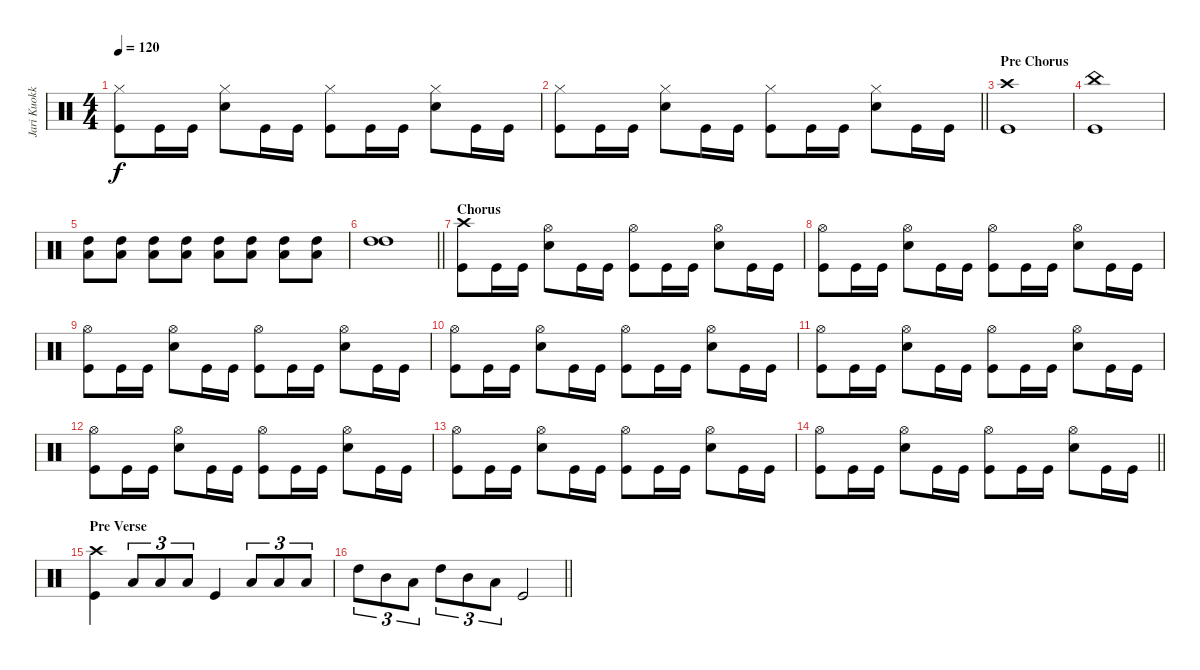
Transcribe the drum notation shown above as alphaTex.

\track ("Jari Kuokkanen" "Jari Kuokk") {instrument percussion bank 255}
\staff {score}
\articulation defaults
\ts (4 4)
\tempo 120
\clef neutral
\ks c
("Hi-Hat (closed)" "Kick (hit)").8{dy f} "Kick (hit)".16 "Kick (hit)".16 ("Hi-Hat (closed)" "Snare (hit) 2").8 "Kick (hit)".16 "Kick (hit)".16 ("Hi-Hat (closed)" "Kick (hit)").8 "Kick (hit)".16 "Kick (hit)".16 ("Hi-Hat (closed)" "Snare (hit) 2").8 "Kick (hit)".16 "Kick (hit)".16 |
\barLineRight lightlight
("Hi-Hat (closed)" "Kick (hit)").8 "Kick (hit)".16 "Kick (hit)".16 ("Hi-Hat (closed)" "Snare (hit) 2").8 "Kick (hit)".16 "Kick (hit)".16 ("Hi-Hat (closed)" "Kick (hit)").8 "Kick (hit)".16 "Kick (hit)".16 ("Hi-Hat (closed)" "Snare (hit) 2").8 "Kick (hit)".16 "Kick (hit)".16 |
\section ("" "Pre Chorus")
("Crash high (hit)" "Kick (hit)").1 |
("China (hit)" "Kick (hit)").1 |
("Low Tom (hit)" "High Tom (hit)").8 ("Low Tom (hit)" "High Tom (hit)").8 ("Low Tom (hit)" "High Tom (hit)").8 ("Low Tom (hit)" "High Tom (hit)").8 ("Low Tom (hit)" "High Tom (hit)").8 ("Low Tom (hit)" "High Tom (hit)").8 ("Low Tom (hit)" "High Tom (hit)").8 ("Low Tom (hit)" "High Tom (hit)").8 |
\barLineRight lightlight
("High Tom (hit)" "High Tom (hit)").1 |
\section ("" "Chorus")
("Crash high (hit)" "Kick (hit)").8 "Kick (hit)".16 "Kick (hit)".16 ("Hi-Hat (open)" "Snare (hit) 2").8 "Kick (hit)".16 "Kick (hit)".16 ("Hi-Hat (open)" "Kick (hit)").8 "Kick (hit)".16 "Kick (hit)".16 ("Hi-Hat (open)" "Snare (hit) 2").8 "Kick (hit)".16 "Kick (hit)".16 |
("Hi-Hat (open)" "Kick (hit)").8 "Kick (hit)".16 "Kick (hit)".16 ("Hi-Hat (open)" "Snare (hit) 2").8 "Kick (hit)".16 "Kick (hit)".16 ("Hi-Hat (open)" "Kick (hit)").8 "Kick (hit)".16 "Kick (hit)".16 ("Hi-Hat (open)" "Snare (hit) 2").8 "Kick (hit)".16 "Kick (hit)".16 |
("Hi-Hat (open)" "Kick (hit)").8 "Kick (hit)".16 "Kick (hit)".16 ("Hi-Hat (open)" "Snare (hit) 2").8 "Kick (hit)".16 "Kick (hit)".16 ("Hi-Hat (open)" "Kick (hit)").8 "Kick (hit)".16 "Kick (hit)".16 ("Hi-Hat (open)" "Snare (hit) 2").8 "Kick (hit)".16 "Kick (hit)".16 |
("Hi-Hat (open)" "Kick (hit)").8 "Kick (hit)".16 "Kick (hit)".16 ("Hi-Hat (open)" "Snare (hit) 2").8 "Kick (hit)".16 "Kick (hit)".16 ("Hi-Hat (open)" "Kick (hit)").8 "Kick (hit)".16 "Kick (hit)".16 ("Hi-Hat (open)" "Snare (hit) 2").8 "Kick (hit)".16 "Kick (hit)".16 |
("Hi-Hat (open)" "Kick (hit)").8 "Kick (hit)".16 "Kick (hit)".16 ("Hi-Hat (open)" "Snare (hit) 2").8 "Kick (hit)".16 "Kick (hit)".16 ("Hi-Hat (open)" "Kick (hit)").8 "Kick (hit)".16 "Kick (hit)".16 ("Hi-Hat (open)" "Snare (hit) 2").8 "Kick (hit)".16 "Kick (hit)".16 |
("Hi-Hat (open)" "Kick (hit)").8 "Kick (hit)".16 "Kick (hit)".16 ("Hi-Hat (open)" "Snare (hit) 2").8 "Kick (hit)".16 "Kick (hit)".16 ("Hi-Hat (open)" "Kick (hit)").8 "Kick (hit)".16 "Kick (hit)".16 ("Hi-Hat (open)" "Snare (hit) 2").8 "Kick (hit)".16 "Kick (hit)".16 |
("Hi-Hat (open)" "Kick (hit)").8 "Kick (hit)".16 "Kick (hit)".16 ("Hi-Hat (open)" "Snare (hit) 2").8 "Kick (hit)".16 "Kick (hit)".16 ("Hi-Hat (open)" "Kick (hit)").8 "Kick (hit)".16 "Kick (hit)".16 ("Hi-Hat (open)" "Snare (hit) 2").8 "Kick (hit)".16 "Kick (hit)".16 |
\barLineRight lightlight
("Hi-Hat (open)" "Kick (hit)").8 "Kick (hit)".16 "Kick (hit)".16 ("Hi-Hat (open)" "Snare (hit) 2").8 "Kick (hit)".16 "Kick (hit)".16 ("Hi-Hat (open)" "Kick (hit)").8 "Kick (hit)".16 "Kick (hit)".16 ("Hi-Hat (open)" "Snare (hit) 2").8 "Kick (hit)".16 "Kick (hit)".16 |
\section ("" "Pre Verse")
("Crash high (hit)" "Kick (hit)").4 "Low Tom (hit)".8{tu (3 2)} "Low Tom (hit)".8{tu (3 2)} "Low Tom (hit)".8{tu (3 2)} "Kick (hit)".4 "Low Tom (hit)".8{tu (3 2)} "Low Tom (hit)".8{tu (3 2)} "Low Tom (hit)".8{tu (3 2)} |
\barLineRight lightlight "High Tom (hit)".8{tu (3 2)} "Mid Tom (hit)".8{tu (3 2)} "Low Tom (hit)".8{tu (3 2)} "High Tom (hit)".8{tu (3 2)} "Mid Tom (hit)".8{tu (3 2)} "Low Tom (hit)".8{tu (3 2)} "Kick (hit)".2
